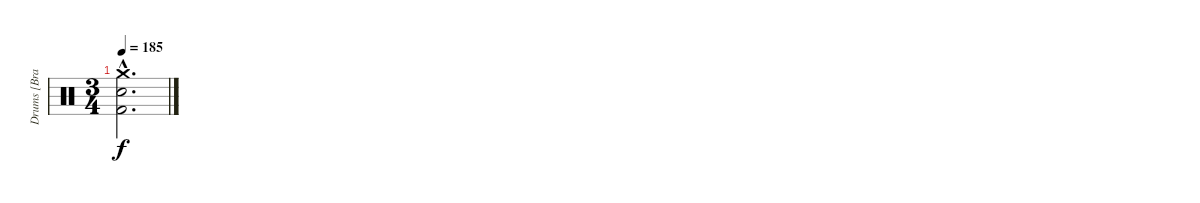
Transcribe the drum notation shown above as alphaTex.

\track ("Drums [Brann Dailor]" "Drums [Bra") {instrument percussion}
\staff {score}
\articulation defaults
\ts (3 4)
\tempo 185
\clef neutral
\ks c
("Crash medium (hit)"{hac} "Electric Snare (hit)"{hac} "Kick (hit) 2"{hac}).2{d dy f}
